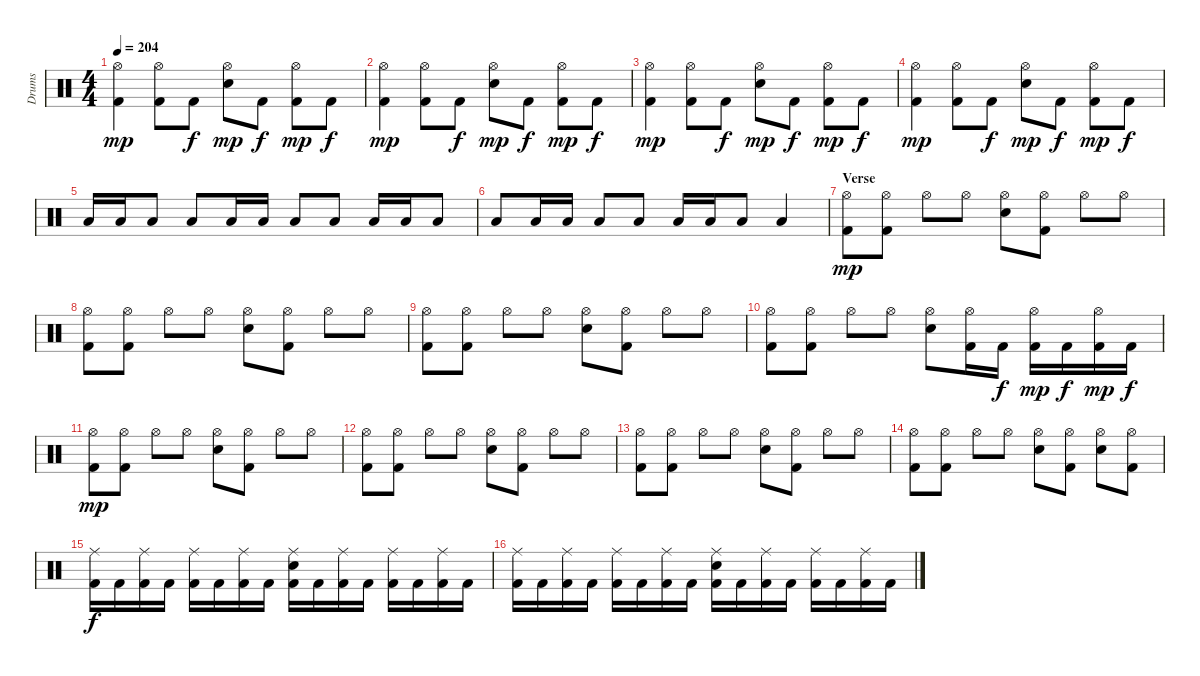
\track ("Drums" "Drums") {instrument percussion}
\staff {score}
\articulation defaults
\ts (4 4)
\tempo 204
\clef neutral
\ks c
("Hi-Hat (open)" "Kick (hit) 2").4{dy mp} ("Hi-Hat (open)" "Kick (hit) 2").8 "Kick (hit) 2".8{dy f} ("Hi-Hat (open)" "Electric Snare (hit)").8{dy mp} "Kick (hit) 2".8{dy f} ("Hi-Hat (open)" "Kick (hit) 2").8{dy mp} "Kick (hit) 2".8{dy f} |
("Hi-Hat (open)" "Kick (hit) 2").4{dy mp} ("Hi-Hat (open)" "Kick (hit) 2").8 "Kick (hit) 2".8{dy f} ("Hi-Hat (open)" "Electric Snare (hit)").8{dy mp} "Kick (hit) 2".8{dy f} ("Hi-Hat (open)" "Kick (hit) 2").8{dy mp} "Kick (hit) 2".8{dy f} |
("Hi-Hat (open)" "Kick (hit) 2").4{dy mp} ("Hi-Hat (open)" "Kick (hit) 2").8 "Kick (hit) 2".8{dy f} ("Hi-Hat (open)" "Electric Snare (hit)").8{dy mp} "Kick (hit) 2".8{dy f} ("Hi-Hat (open)" "Kick (hit) 2").8{dy mp} "Kick (hit) 2".8{dy f} |
("Hi-Hat (open)" "Kick (hit) 2").4{dy mp} ("Hi-Hat (open)" "Kick (hit) 2").8 "Kick (hit) 2".8{dy f} ("Hi-Hat (open)" "Electric Snare (hit)").8{dy mp} "Kick (hit) 2".8{dy f} ("Hi-Hat (open)" "Kick (hit) 2").8{dy mp} "Kick (hit) 2".8{dy f} |
"Low Tom (hit)".16 "Low Tom (hit)".16 "Low Tom (hit)".8 "Low Tom (hit)".8 "Low Tom (hit)".16 "Low Tom (hit)".16 "Low Tom (hit)".8 "Low Tom (hit)".8 "Low Tom (hit)".16 "Low Tom (hit)".16 "Low Tom (hit)".8 |
"Low Tom (hit)".8 "Low Tom (hit)".16 "Low Tom (hit)".16 "Low Tom (hit)".8 "Low Tom (hit)".8 "Low Tom (hit)".16 "Low Tom (hit)".16 "Low Tom (hit)".8 "Low Tom (hit)".4 |
\section ("" "Verse")
("Hi-Hat (open)" "Kick (hit) 2").8{dy mp} ("Hi-Hat (open)" "Kick (hit) 2").8 "Hi-Hat (open)".8 "Hi-Hat (open)".8 ("Hi-Hat (open)" "Electric Snare (hit)").8 ("Hi-Hat (open)" "Kick (hit) 2").8 "Hi-Hat (open)".8 "Hi-Hat (open)".8 |
("Hi-Hat (open)" "Kick (hit) 2").8 ("Hi-Hat (open)" "Kick (hit) 2").8 "Hi-Hat (open)".8 "Hi-Hat (open)".8 ("Hi-Hat (open)" "Electric Snare (hit)").8 ("Hi-Hat (open)" "Kick (hit) 2").8 "Hi-Hat (open)".8 "Hi-Hat (open)".8 |
("Hi-Hat (open)" "Kick (hit) 2").8 ("Hi-Hat (open)" "Kick (hit) 2").8 "Hi-Hat (open)".8 "Hi-Hat (open)".8 ("Hi-Hat (open)" "Electric Snare (hit)").8 ("Hi-Hat (open)" "Kick (hit) 2").8 "Hi-Hat (open)".8 "Hi-Hat (open)".8 |
("Hi-Hat (open)" "Kick (hit) 2").8 ("Hi-Hat (open)" "Kick (hit) 2").8 "Hi-Hat (open)".8 "Hi-Hat (open)".8 ("Hi-Hat (open)" "Electric Snare (hit)").8 ("Hi-Hat (open)" "Kick (hit) 2").16 "Kick (hit) 2".16{dy f} ("Hi-Hat (open)" "Kick (hit) 2").16{dy mp} "Kick (hit) 2".16{dy f} ("Hi-Hat (open)" "Kick (hit) 2").16{dy mp} "Kick (hit) 2".16{dy f} |
("Hi-Hat (open)" "Kick (hit) 2").8{dy mp} ("Hi-Hat (open)" "Kick (hit) 2").8 "Hi-Hat (open)".8 "Hi-Hat (open)".8 ("Hi-Hat (open)" "Electric Snare (hit)").8 ("Hi-Hat (open)" "Kick (hit) 2").8 "Hi-Hat (open)".8 "Hi-Hat (open)".8 |
("Hi-Hat (open)" "Kick (hit) 2").8 ("Hi-Hat (open)" "Kick (hit) 2").8 "Hi-Hat (open)".8 "Hi-Hat (open)".8 ("Hi-Hat (open)" "Electric Snare (hit)").8 ("Hi-Hat (open)" "Kick (hit) 2").8 "Hi-Hat (open)".8 "Hi-Hat (open)".8 |
("Hi-Hat (open)" "Kick (hit) 2").8 ("Hi-Hat (open)" "Kick (hit) 2").8 "Hi-Hat (open)".8 "Hi-Hat (open)".8 ("Hi-Hat (open)" "Electric Snare (hit)").8 ("Hi-Hat (open)" "Kick (hit) 2").8 "Hi-Hat (open)".8 "Hi-Hat (open)".8 |
("Hi-Hat (open)" "Kick (hit) 2").8 ("Hi-Hat (open)" "Kick (hit) 2").8 "Hi-Hat (open)".8 "Hi-Hat (open)".8 ("Hi-Hat (open)" "Electric Snare (hit)").8 ("Hi-Hat (open)" "Kick (hit) 2").8 ("Hi-Hat (open)" "Electric Snare (hit)").8 ("Hi-Hat (open)" "Kick (hit) 2").8 |
("Ride (middle)" "Kick (hit) 2").16{dy f} "Kick (hit) 2".16 ("Ride (middle)" "Kick (hit) 2").16 "Kick (hit) 2".16 ("Ride (middle)" "Kick (hit) 2").16 "Kick (hit) 2".16 ("Ride (middle)" "Kick (hit) 2").16 "Kick (hit) 2".16 ("Ride (middle)" "Electric Snare (hit)" "Kick (hit) 2").16 "Kick (hit) 2".16 ("Ride (middle)" "Kick (hit) 2").16 "Kick (hit) 2".16 ("Ride (middle)" "Kick (hit) 2").16 "Kick (hit) 2".16 ("Ride (middle)" "Kick (hit) 2").16 "Kick (hit) 2".16 |
("Ride (middle)" "Kick (hit) 2").16 "Kick (hit) 2".16 ("Ride (middle)" "Kick (hit) 2").16 "Kick (hit) 2".16 ("Ride (middle)" "Kick (hit) 2").16 "Kick (hit) 2".16 ("Ride (middle)" "Kick (hit) 2").16 "Kick (hit) 2".16 ("Ride (middle)" "Electric Snare (hit)" "Kick (hit) 2").16 "Kick (hit) 2".16 ("Ride (middle)" "Kick (hit) 2").16 "Kick (hit) 2".16 ("Ride (middle)" "Kick (hit) 2").16 "Kick (hit) 2".16 ("Ride (middle)" "Kick (hit) 2").16 "Kick (hit) 2".16
